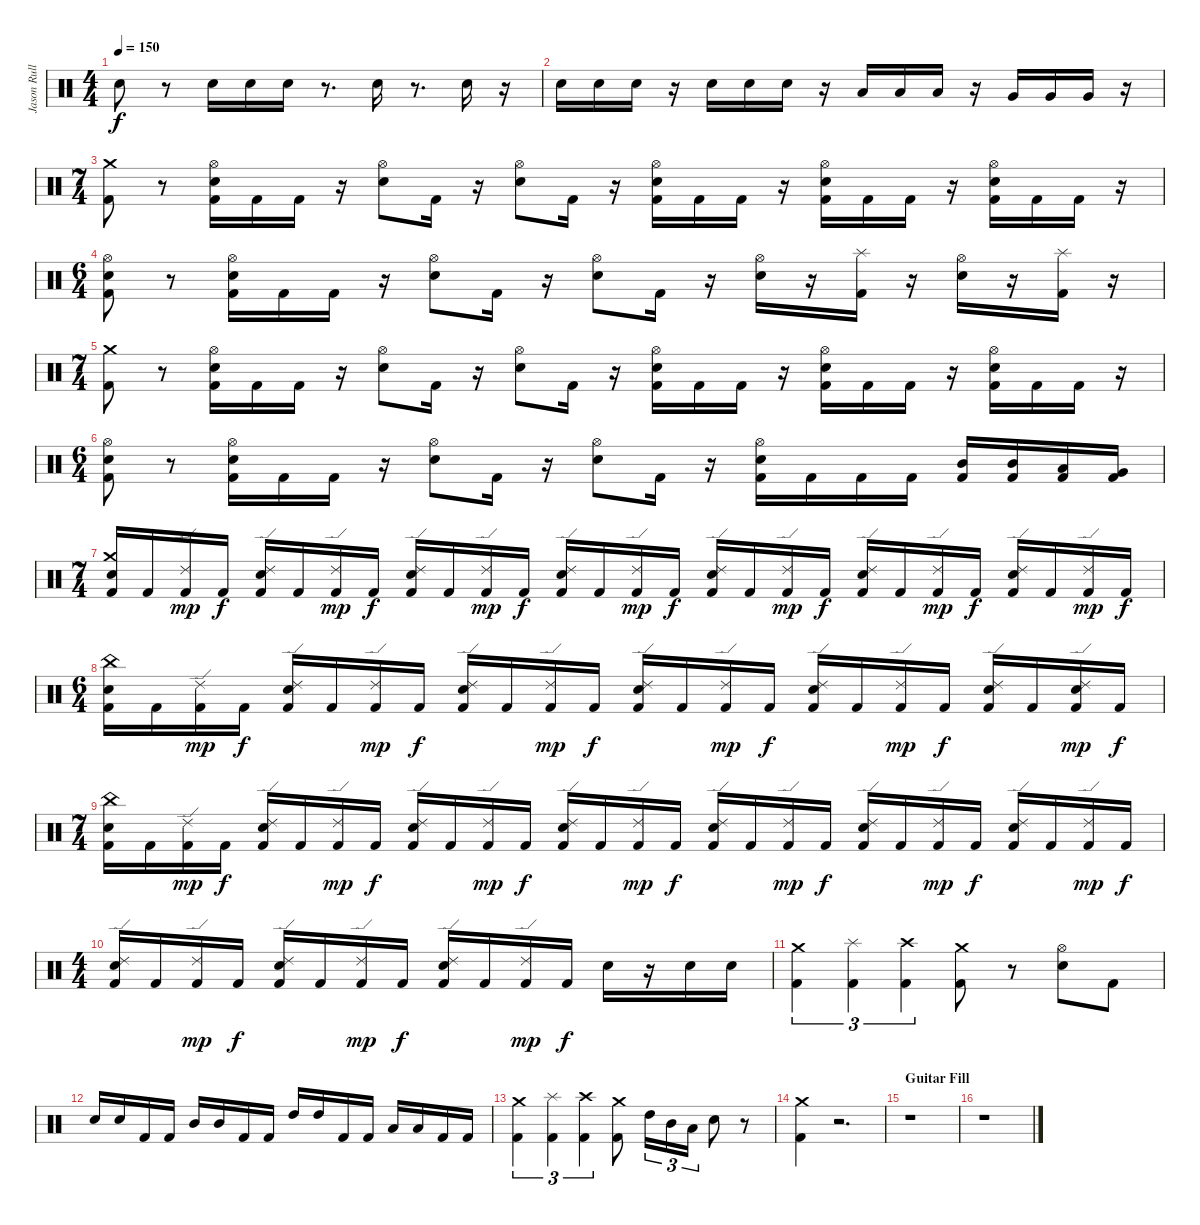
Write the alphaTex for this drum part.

\track ("Jason Rullo" "Jason Rull") {instrument percussion}
\staff {score}
\articulation defaults
\ts (4 4)
\tempo 150
\clef neutral
\ks c "Electric Snare (hit)".8{dy f volume 16}
r.8 "Electric Snare (hit)".16 "Electric Snare (hit)".16 "Electric Snare (hit)".16 r.8{d} "Electric Snare (hit)".16 r.8{d} "Electric Snare (hit)".16 r.16 |
"Electric Snare (hit)".16 "Electric Snare (hit)".16 "Electric Snare (hit)".16 r.16 "Electric Snare (hit)".16 "Electric Snare (hit)".16 "Electric Snare (hit)".16 r.16 "Low Tom (hit)".16 "Low Tom (hit)".16 "Low Tom (hit)".16 r.16 "Very Low Tom (hit)".16 "Very Low Tom (hit)".16 "Very Low Tom (hit)".16 r.16 |
\ts (7 4)
("Crash medium (hit)" "Kick (hit) 2").8{volume 16 balance 8} r.8 ("Hi-Hat (open)" "Kick (hit) 2" "Electric Snare (hit)").16 "Kick (hit) 2".16 "Kick (hit) 2".16 r.16 ("Hi-Hat (open)" "Electric Snare (hit)").8 "Kick (hit) 2".16 r.16 ("Hi-Hat (open)" "Electric Snare (hit)").8 "Kick (hit) 2".16 r.16 ("Hi-Hat (open)" "Kick (hit) 2" "Electric Snare (hit)").16 "Kick (hit) 2".16 "Kick (hit) 2".16 r.16 ("Hi-Hat (open)" "Kick (hit) 2" "Electric Snare (hit)").16 "Kick (hit) 2".16 "Kick (hit) 2".16 r.16 ("Hi-Hat (open)" "Kick (hit) 2" "Electric Snare (hit)").16 "Kick (hit) 2".16 "Kick (hit) 2".16 r.16 |
\ts (6 4)
("Kick (hit) 2" "Hi-Hat (open)" "Electric Snare (hit)").8 r.8 ("Hi-Hat (open)" "Kick (hit) 2" "Electric Snare (hit)").16 "Kick (hit) 2".16 "Kick (hit) 2".16 r.16 ("Hi-Hat (open)" "Electric Snare (hit)").8 "Kick (hit) 2".16 r.16 ("Hi-Hat (open)" "Electric Snare (hit)").8 "Kick (hit) 2".16 r.16 ("Hi-Hat (open)" "Electric Snare (hit)").16 r.16 ("Splash (hit)" "Kick (hit) 2").16 r.16 ("Hi-Hat (open)" "Electric Snare (hit)").16 r.16 ("Splash (hit)" "Kick (hit) 2").16 r.16 |
\ts (7 4)
("Crash medium (hit)" "Kick (hit) 2").8{volume 16 balance 8} r.8 ("Hi-Hat (open)" "Kick (hit) 2" "Electric Snare (hit)").16 "Kick (hit) 2".16 "Kick (hit) 2".16 r.16 ("Hi-Hat (open)" "Electric Snare (hit)").8 "Kick (hit) 2".16 r.16 ("Hi-Hat (open)" "Electric Snare (hit)").8 "Kick (hit) 2".16 r.16 ("Hi-Hat (open)" "Kick (hit) 2" "Electric Snare (hit)").16 "Kick (hit) 2".16 "Kick (hit) 2".16 r.16 ("Hi-Hat (open)" "Kick (hit) 2" "Electric Snare (hit)").16 "Kick (hit) 2".16 "Kick (hit) 2".16 r.16 ("Hi-Hat (open)" "Kick (hit) 2" "Electric Snare (hit)").16 "Kick (hit) 2".16 "Kick (hit) 2".16 r.16 |
\ts (6 4)
("Kick (hit) 2" "Hi-Hat (open)" "Electric Snare (hit)").8 r.8 ("Hi-Hat (open)" "Kick (hit) 2" "Electric Snare (hit)").16 "Kick (hit) 2".16 "Kick (hit) 2".16 r.16 ("Hi-Hat (open)" "Electric Snare (hit)").8 "Kick (hit) 2".16 r.16 ("Hi-Hat (open)" "Electric Snare (hit)").8 "Kick (hit) 2".16 r.16 ("Hi-Hat (open)" "Kick (hit) 2" "Electric Snare (hit)").16 "Kick (hit) 2".16 "Kick (hit) 2".16 "Kick (hit) 2".16 ("Mid Tom (hit)" "Kick (hit) 2").16 ("Mid Tom (hit)" "Kick (hit) 2").16 ("Low Tom (hit)" "Kick (hit) 2").16 ("Very Low Tom (hit)" "Kick (hit) 2").16 |
\ts (7 4)
("Electric Snare (hit)" "Kick (hit) 2" "Crash medium (hit)").16{volume 16 balance 8} "Kick (hit) 2".16 ("Kick (hit) 2" "Ride (edge) 2").16{dy mp} "Kick (hit) 2".16{dy f} ("Electric Snare (hit)" "Kick (hit) 2" "Ride (edge) 2").16 "Kick (hit) 2".16 ("Kick (hit) 2" "Ride (edge) 2").16{dy mp} "Kick (hit) 2".16{dy f} ("Electric Snare (hit)" "Kick (hit) 2" "Ride (edge) 2").16 "Kick (hit) 2".16 ("Kick (hit) 2" "Ride (edge) 2").16{dy mp} "Kick (hit) 2".16{dy f} ("Electric Snare (hit)" "Kick (hit) 2" "Ride (edge) 2").16 "Kick (hit) 2".16 ("Kick (hit) 2" "Ride (edge) 2").16{dy mp} "Kick (hit) 2".16{dy f} ("Electric Snare (hit)" "Kick (hit) 2" "Ride (edge) 2").16 "Kick (hit) 2".16 ("Kick (hit) 2" "Ride (edge) 2").16{dy mp} "Kick (hit) 2".16{dy f} ("Electric Snare (hit)" "Kick (hit) 2" "Ride (edge) 2").16 "Kick (hit) 2".16 ("Kick (hit) 2" "Ride (edge) 2").16{dy mp} "Kick (hit) 2".16{dy f} ("Electric Snare (hit)" "Kick (hit) 2" "Ride (edge) 2").16 "Kick (hit) 2".16 ("Kick (hit) 2" "Ride (edge) 2").16{dy mp} "Kick (hit) 2".16{dy f} |
\ts (6 4)
("China (hit)" "Electric Snare (hit)" "Kick (hit) 2").16 "Kick (hit) 2".16 ("Kick (hit) 2" "Ride (edge) 2").16{dy mp} "Kick (hit) 2".16{dy f} ("Electric Snare (hit)" "Kick (hit) 2" "Ride (edge) 2").16 "Kick (hit) 2".16 ("Kick (hit) 2" "Ride (edge) 2").16{dy mp} "Kick (hit) 2".16{dy f} ("Electric Snare (hit)" "Kick (hit) 2" "Ride (edge) 2").16 "Kick (hit) 2".16 ("Kick (hit) 2" "Ride (edge) 2").16{dy mp} "Kick (hit) 2".16{dy f} ("Electric Snare (hit)" "Kick (hit) 2" "Ride (edge) 2").16 "Kick (hit) 2".16 ("Kick (hit) 2" "Ride (edge) 2").16{dy mp} "Kick (hit) 2".16{dy f} ("Electric Snare (hit)" "Kick (hit) 2" "Ride (edge) 2").16 "Kick (hit) 2".16 ("Kick (hit) 2" "Ride (edge) 2").16{dy mp} "Kick (hit) 2".16{dy f} ("Electric Snare (hit)" "Kick (hit) 2" "Ride (edge) 2").16 "Kick (hit) 2".16 ("Electric Snare (hit)" "Kick (hit) 2" "Ride (edge) 2").16{dy mp} "Kick (hit) 2".16{dy f} |
\ts (7 4)
("China (hit)" "Electric Snare (hit)" "Kick (hit) 2").16{volume 16 balance 8} "Kick (hit) 2".16 ("Kick (hit) 2" "Ride (edge) 2").16{dy mp} "Kick (hit) 2".16{dy f} ("Electric Snare (hit)" "Kick (hit) 2" "Ride (edge) 2").16 "Kick (hit) 2".16 ("Kick (hit) 2" "Ride (edge) 2").16{dy mp} "Kick (hit) 2".16{dy f} ("Electric Snare (hit)" "Kick (hit) 2" "Ride (edge) 2").16 "Kick (hit) 2".16 ("Kick (hit) 2" "Ride (edge) 2").16{dy mp} "Kick (hit) 2".16{dy f} ("Electric Snare (hit)" "Kick (hit) 2" "Ride (edge) 2").16 "Kick (hit) 2".16 ("Kick (hit) 2" "Ride (edge) 2").16{dy mp} "Kick (hit) 2".16{dy f} ("Electric Snare (hit)" "Kick (hit) 2" "Ride (edge) 2").16 "Kick (hit) 2".16 ("Kick (hit) 2" "Ride (edge) 2").16{dy mp} "Kick (hit) 2".16{dy f} ("Electric Snare (hit)" "Kick (hit) 2" "Ride (edge) 2").16 "Kick (hit) 2".16 ("Kick (hit) 2" "Ride (edge) 2").16{dy mp} "Kick (hit) 2".16{dy f} ("Electric Snare (hit)" "Kick (hit) 2" "Ride (edge) 2").16 "Kick (hit) 2".16 ("Kick (hit) 2" "Ride (edge) 2").16{dy mp} "Kick (hit) 2".16{dy f} |
\ts (4 4)
("Ride (edge) 2" "Electric Snare (hit)" "Kick (hit) 2").16 "Kick (hit) 2".16 ("Ride (edge) 2" "Kick (hit) 2").16{dy mp} "Kick (hit) 2".16{dy f} ("Ride (edge) 2" "Electric Snare (hit)" "Kick (hit) 2").16 "Kick (hit) 2".16 ("Ride (edge) 2" "Kick (hit) 2").16{dy mp} "Kick (hit) 2".16{dy f} ("Ride (edge) 2" "Kick (hit) 2" "Electric Snare (hit)").16 "Kick (hit) 2".16 ("Ride (edge) 2" "Kick (hit) 2").16{dy mp} "Kick (hit) 2".16{dy f} "Electric Snare (hit)".16 r.16 "Electric Snare (hit)".16 "Electric Snare (hit)".16 |
("Crash medium (hit)" "Kick (hit) 2").4{tu (3 2)} ("Splash (hit)" "Kick (hit) 2").4{tu (3 2)} ("Crash high (hit)" "Kick (hit) 2").4{tu (3 2)} ("Crash medium (hit)" "Kick (hit) 2").8 r.8 ("Hi-Hat (open)" "Electric Snare (hit)").8 "Kick (hit) 2".8 |
"Electric Snare (hit)".16 "Electric Snare (hit)".16 "Kick (hit) 2".16 "Kick (hit) 2".16 "Mid Tom (hit)".16 "Mid Tom (hit)".16 "Kick (hit) 2".16 "Kick (hit) 2".16 "High Tom (hit)".16 "High Tom (hit)".16 "Kick (hit) 2".16 "Kick (hit) 2".16 "Low Tom (hit)".16 "Low Tom (hit)".16 "Kick (hit) 2".16 "Kick (hit) 2".16 |
("Crash medium (hit)" "Kick (hit) 2").4{tu (3 2)} ("Splash (hit)" "Kick (hit) 2").4{tu (3 2)} ("Crash high (hit)" "Kick (hit) 2").4{tu (3 2)} ("Crash medium (hit)" "Kick (hit) 2").8 "High Tom (hit)".16{tu (3 2)} "Mid Tom (hit)".16{tu (3 2)} "Low Tom (hit)".16{tu (3 2)} "Electric Snare (hit)".8 r.8 |
("Crash medium (hit)" "Kick (hit) 2").4 r.2{d} |
\section ("" "Guitar Fill")
r.1 |
r.1
